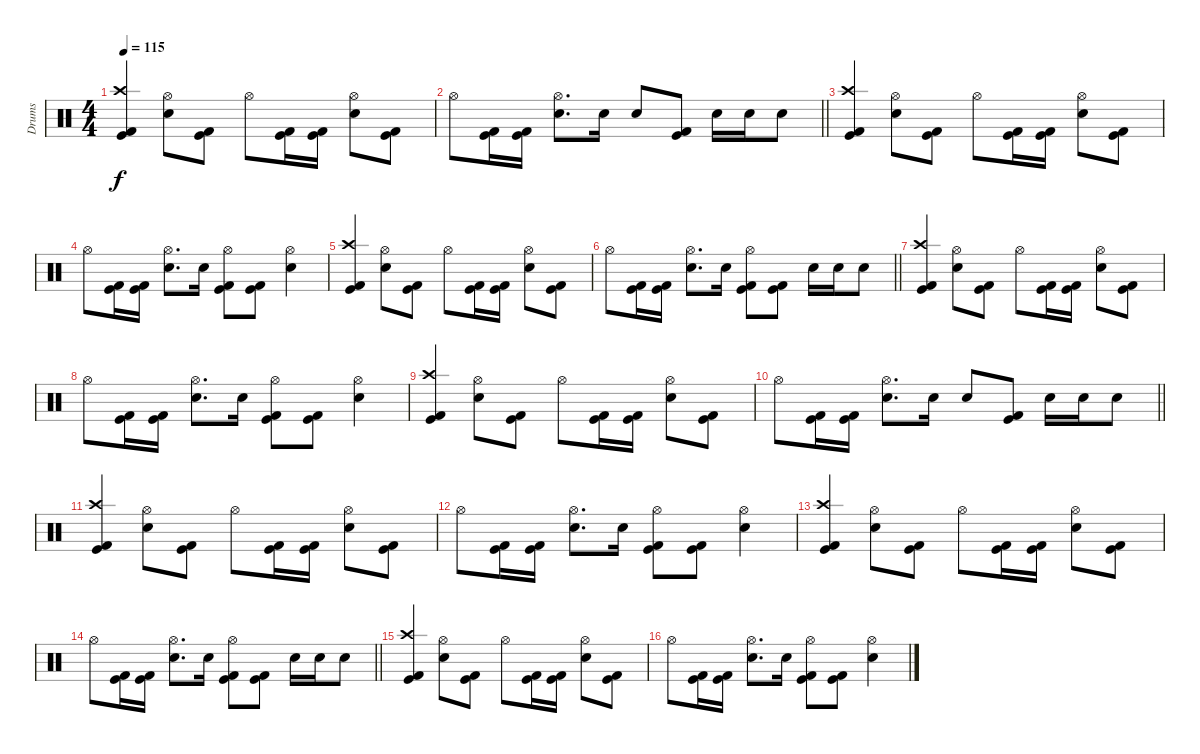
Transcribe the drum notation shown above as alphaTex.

\track ("Drums" "Drums") {instrument percussion}
\staff {score}
\articulation defaults
\ts (4 4)
\tempo 115
\clef neutral
\ks c
("Kick (hit) 2" "Crash high (hit)" "Kick (hit)").4{dy f} ("Electric Snare (hit)" "Hi-Hat (open)").8 ("Kick (hit) 2" "Kick (hit)").8 "Hi-Hat (open)".8 ("Kick (hit) 2" "Kick (hit)").16 ("Kick (hit) 2" "Kick (hit)").16 ("Electric Snare (hit)" "Hi-Hat (open)").8 ("Kick (hit) 2" "Kick (hit)").8 |
\barLineRight lightlight "Hi-Hat (open)".8
("Kick (hit) 2" "Kick (hit)").16 ("Kick (hit) 2" "Kick (hit)").16 ("Electric Snare (hit)" "Hi-Hat (open)").8{d} "Electric Snare (hit)".16 "Electric Snare (hit)".8 ("Kick (hit) 2" "Kick (hit)").8 "Electric Snare (hit)".16 "Electric Snare (hit)".16 "Electric Snare (hit)".8 |
\section ("" "")
("Kick (hit) 2" "Crash high (hit)" "Kick (hit)").4 ("Electric Snare (hit)" "Hi-Hat (open)").8 ("Kick (hit) 2" "Kick (hit)").8 "Hi-Hat (open)".8 ("Kick (hit) 2" "Kick (hit)").16 ("Kick (hit) 2" "Kick (hit)").16 ("Electric Snare (hit)" "Hi-Hat (open)").8 ("Kick (hit) 2" "Kick (hit)").8 |
"Hi-Hat (open)".8 ("Kick (hit) 2" "Kick (hit)").16 ("Kick (hit) 2" "Kick (hit)").16 ("Electric Snare (hit)" "Hi-Hat (open)").8{d} "Electric Snare (hit)".16 ("Kick (hit) 2" "Hi-Hat (open)" "Kick (hit)").8 ("Kick (hit) 2" "Kick (hit)").8 ("Electric Snare (hit)" "Hi-Hat (open)").4 |
("Kick (hit) 2" "Crash high (hit)" "Kick (hit)").4 ("Electric Snare (hit)" "Hi-Hat (open)").8 ("Kick (hit) 2" "Kick (hit)").8 "Hi-Hat (open)".8 ("Kick (hit) 2" "Kick (hit)").16 ("Kick (hit) 2" "Kick (hit)").16 ("Electric Snare (hit)" "Hi-Hat (open)").8 ("Kick (hit) 2" "Kick (hit)").8 |
\barLineRight lightlight "Hi-Hat (open)".8
("Kick (hit) 2" "Kick (hit)").16 ("Kick (hit) 2" "Kick (hit)").16 ("Electric Snare (hit)" "Hi-Hat (open)").8{d} "Electric Snare (hit)".16 ("Kick (hit) 2" "Hi-Hat (open)" "Kick (hit)").8 ("Kick (hit) 2" "Kick (hit)").8 "Electric Snare (hit)".16 "Electric Snare (hit)".16 "Electric Snare (hit)".8 |
("Kick (hit) 2" "Crash high (hit)" "Kick (hit)").4 ("Electric Snare (hit)" "Hi-Hat (open)").8 ("Kick (hit) 2" "Kick (hit)").8 "Hi-Hat (open)".8 ("Kick (hit) 2" "Kick (hit)").16 ("Kick (hit) 2" "Kick (hit)").16 ("Electric Snare (hit)" "Hi-Hat (open)").8 ("Kick (hit) 2" "Kick (hit)").8 |
"Hi-Hat (open)".8 ("Kick (hit) 2" "Kick (hit)").16 ("Kick (hit) 2" "Kick (hit)").16 ("Electric Snare (hit)" "Hi-Hat (open)").8{d} "Electric Snare (hit)".16 ("Kick (hit) 2" "Hi-Hat (open)" "Kick (hit)").8 ("Kick (hit) 2" "Kick (hit)").8 ("Electric Snare (hit)" "Hi-Hat (open)").4 |
("Kick (hit) 2" "Crash high (hit)" "Kick (hit)").4 ("Electric Snare (hit)" "Hi-Hat (open)").8 ("Kick (hit) 2" "Kick (hit)").8 "Hi-Hat (open)".8 ("Kick (hit) 2" "Kick (hit)").16 ("Kick (hit) 2" "Kick (hit)").16 ("Electric Snare (hit)" "Hi-Hat (open)").8 ("Kick (hit) 2" "Kick (hit)").8 |
\barLineRight lightlight "Hi-Hat (open)".8
("Kick (hit) 2" "Kick (hit)").16 ("Kick (hit) 2" "Kick (hit)").16 ("Electric Snare (hit)" "Hi-Hat (open)").8{d} "Electric Snare (hit)".16 "Electric Snare (hit)".8 ("Kick (hit) 2" "Kick (hit)").8 "Electric Snare (hit)".16 "Electric Snare (hit)".16 "Electric Snare (hit)".8 |
("Kick (hit) 2" "Crash high (hit)" "Kick (hit)").4 ("Electric Snare (hit)" "Hi-Hat (open)").8 ("Kick (hit) 2" "Kick (hit)").8 "Hi-Hat (open)".8 ("Kick (hit) 2" "Kick (hit)").16 ("Kick (hit) 2" "Kick (hit)").16 ("Electric Snare (hit)" "Hi-Hat (open)").8 ("Kick (hit) 2" "Kick (hit)").8 |
"Hi-Hat (open)".8 ("Kick (hit) 2" "Kick (hit)").16 ("Kick (hit) 2" "Kick (hit)").16 ("Electric Snare (hit)" "Hi-Hat (open)").8{d} "Electric Snare (hit)".16 ("Kick (hit) 2" "Hi-Hat (open)" "Kick (hit)").8 ("Kick (hit) 2" "Kick (hit)").8 ("Electric Snare (hit)" "Hi-Hat (open)").4 |
("Kick (hit) 2" "Crash high (hit)" "Kick (hit)").4 ("Electric Snare (hit)" "Hi-Hat (open)").8 ("Kick (hit) 2" "Kick (hit)").8 "Hi-Hat (open)".8 ("Kick (hit) 2" "Kick (hit)").16 ("Kick (hit) 2" "Kick (hit)").16 ("Electric Snare (hit)" "Hi-Hat (open)").8 ("Kick (hit) 2" "Kick (hit)").8 |
\barLineRight lightlight "Hi-Hat (open)".8
("Kick (hit) 2" "Kick (hit)").16 ("Kick (hit) 2" "Kick (hit)").16 ("Electric Snare (hit)" "Hi-Hat (open)").8{d} "Electric Snare (hit)".16 ("Kick (hit) 2" "Hi-Hat (open)" "Kick (hit)").8 ("Kick (hit) 2" "Kick (hit)").8 "Electric Snare (hit)".16 "Electric Snare (hit)".16 "Electric Snare (hit)".8 |
("Kick (hit) 2" "Crash high (hit)" "Kick (hit)").4 ("Electric Snare (hit)" "Hi-Hat (open)").8 ("Kick (hit) 2" "Kick (hit)").8 "Hi-Hat (open)".8 ("Kick (hit) 2" "Kick (hit)").16 ("Kick (hit) 2" "Kick (hit)").16 ("Electric Snare (hit)" "Hi-Hat (open)").8 ("Kick (hit) 2" "Kick (hit)").8 |
"Hi-Hat (open)".8 ("Kick (hit) 2" "Kick (hit)").16 ("Kick (hit) 2" "Kick (hit)").16 ("Electric Snare (hit)" "Hi-Hat (open)").8{d} "Electric Snare (hit)".16 ("Kick (hit) 2" "Hi-Hat (open)" "Kick (hit)").8 ("Kick (hit) 2" "Kick (hit)").8 ("Electric Snare (hit)" "Hi-Hat (open)").4
